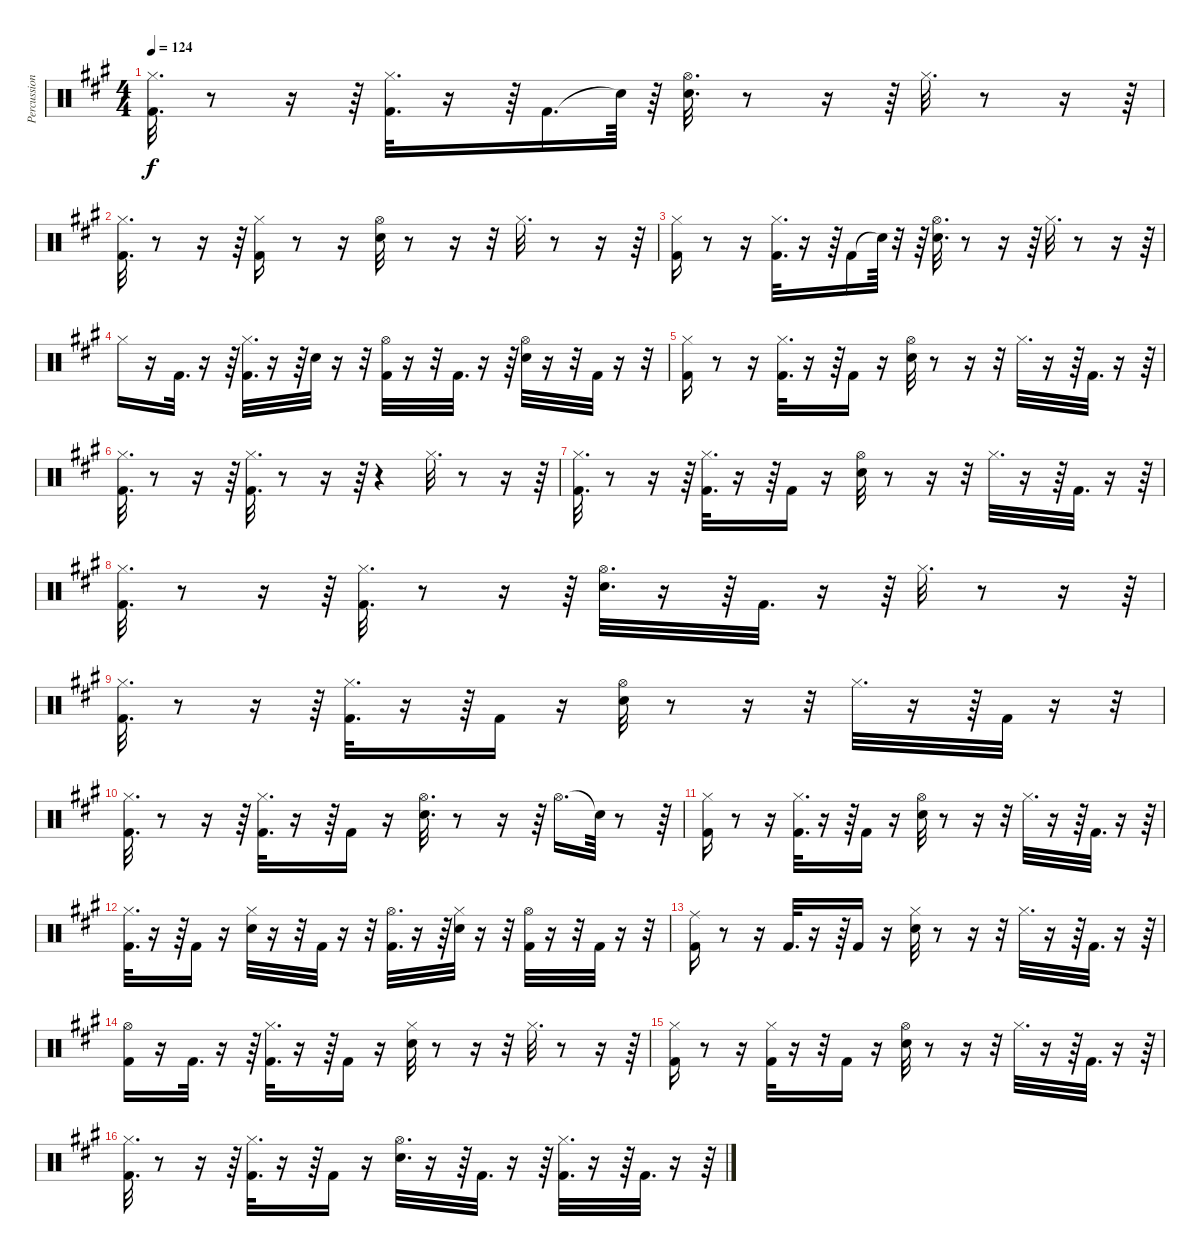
\track ("Percussion" "Percussion") {instrument percussion}
\staff {score}
\articulation defaults
\ts (4 4)
\tempo 124
\clef neutral
\ks f#minor
("Hi-Hat (closed)" "Kick (hit) 2").32{d dy f} r.8 r.16 r.64 ("Hi-Hat (closed)" "Kick (hit) 2").32{d} r.16 r.64 "Kick (hit) 2".16{d} "Snare (hit)"{t}.64 r.64 ("Hi-Hat (open)" "Electric Snare (hit)").32{d} r.8 r.16 r.64 "Hi-Hat (closed)".32{d} r.8 r.16 r.64 |
("Hi-Hat (closed)" "Kick (hit) 2").32{d} r.8 r.16 r.64 ("Hi-Hat (closed)" "Kick (hit) 2").16 r.8 r.16 ("Electric Snare (hit)" "Hi-Hat (open)").32 r.8 r.16 r.32 "Hi-Hat (closed)".32{d} r.8 r.16 r.64 |
("Kick (hit) 2" "Hi-Hat (closed)").16 r.8 r.16 ("Kick (hit) 2" "Hi-Hat (closed)").32{d} r.16 r.64 "Kick (hit) 2".16 "Snare (hit)"{t}.64 r.32 r.64 ("Electric Snare (hit)" "Hi-Hat (open)").32{d} r.8 r.16 r.64 "Hi-Hat (closed)".32{d} r.8 r.16 r.64 |
"Hi-Hat (closed)".16 r.16 "Kick (hit) 2".32{d} r.16 r.64 ("Hi-Hat (closed)" "Kick (hit) 2").32{d} r.16 r.64 "Electric Snare (hit)".32 r.16 r.32 ("Kick (hit) 2" "Hi-Hat (open)").32 r.16 r.32 "Kick (hit) 2".32{d} r.16 r.64 ("Electric Snare (hit)" "Hi-Hat (open)").32 r.16 r.32 "Kick (hit) 2".32 r.16 r.32 |
("Kick (hit) 2" "Hi-Hat (closed)").16 r.8 r.16 ("Kick (hit) 2" "Hi-Hat (closed)").32{d} r.16 r.64 "Kick (hit) 2".16 r.16 ("Electric Snare (hit)" "Hi-Hat (open)").32 r.8 r.16 r.32 "Hi-Hat (closed)".32{d} r.16 r.64 "Kick (hit) 2".32{d} r.16 r.64 |
("Hi-Hat (closed)" "Kick (hit) 2").32{d} r.8 r.16 r.64 ("Hi-Hat (closed)" "Kick (hit) 2").32{d} r.8 r.16 r.64 r.4 "Hi-Hat (closed)".32{d} r.8 r.16 r.64 |
("Kick (hit) 2" "Hi-Hat (closed)").32{d} r.8 r.16 r.64 ("Kick (hit) 2" "Hi-Hat (closed)").32{d} r.16 r.64 "Kick (hit) 2".16 r.16 ("Electric Snare (hit)" "Hi-Hat (open)").32 r.8 r.16 r.32 "Hi-Hat (closed)".32{d} r.16 r.64 "Kick (hit) 2".32{d} r.16 r.64 |
("Hi-Hat (closed)" "Kick (hit) 2").32{d} r.8 r.16 r.64 ("Kick (hit) 2" "Hi-Hat (closed)").32{d} r.8 r.16 r.64 ("Electric Snare (hit)" "Hi-Hat (open)").32{d} r.16 r.64 "Kick (hit) 2".32{d} r.16 r.64 "Hi-Hat (closed)".32{d} r.8 r.16 r.64 |
("Hi-Hat (closed)" "Kick (hit) 2").32{d} r.8 r.16 r.64 ("Hi-Hat (closed)" "Kick (hit) 2").32{d} r.16 r.64 "Kick (hit) 2".16 r.16 ("Hi-Hat (open)" "Electric Snare (hit)").32 r.8 r.16 r.32 "Hi-Hat (closed)".32{d} r.16 r.64 "Kick (hit) 2".32 r.16 r.32 |
("Kick (hit) 2" "Hi-Hat (closed)").32{d} r.8 r.16 r.64 ("Kick (hit) 2" "Hi-Hat (closed)").32{d} r.16 r.64 "Kick (hit) 2".16 r.16 ("Electric Snare (hit)" "Hi-Hat (open)").32{d} r.8 r.16 r.64 "Hi-Hat (open)".16{d} "Snare (hit)"{t}.64 r.8 r.64 |
("Hi-Hat (closed)" "Kick (hit) 2").16 r.8 r.16 ("Hi-Hat (closed)" "Kick (hit) 2").32{d} r.16 r.64 "Kick (hit) 2".16 r.16 ("Hi-Hat (open)" "Electric Snare (hit)").32 r.8 r.16 r.32 "Hi-Hat (closed)".32{d} r.16 r.64 "Kick (hit) 2".32{d} r.16 r.64 |
("Hi-Hat (closed)" "Kick (hit) 2").32{d} r.16 r.64 "Kick (hit) 2".16 r.16 ("Hi-Hat (closed)" "Electric Snare (hit)").32 r.16 r.32 "Kick (hit) 2".32 r.16 r.32 ("Hi-Hat (open)" "Kick (hit) 2").32{d} r.16 r.64 ("Hi-Hat (closed)" "Electric Snare (hit)").32 r.16 r.32 ("Hi-Hat (open)" "Kick (hit) 2").32 r.16 r.32 "Kick (hit) 2".32 r.16 r.32 |
("Kick (hit) 2" "Ride (middle)").16 r.8 r.16 "Kick (hit) 2".32{d} r.16 r.64 "Kick (hit) 2".16 r.16 ("Hi-Hat (closed)" "Electric Snare (hit)").32 r.8 r.16 r.32 "Hi-Hat (closed)".32{d} r.16 r.64 "Kick (hit) 2".32{d} r.16 r.64 |
("Hi-Hat (open)" "Kick (hit) 2").16 r.16 "Kick (hit) 2".32{d} r.16 r.64 ("Kick (hit) 2" "Hi-Hat (closed)").32{d} r.16 r.64 "Kick (hit) 2".16 r.16 ("Electric Snare (hit)" "Hi-Hat (closed)").32 r.8 r.16 r.32 "Hi-Hat (closed)".32{d} r.8 r.16 r.64 |
("Kick (hit) 2" "Hi-Hat (closed)").16 r.8 r.16 ("Hi-Hat (closed)" "Kick (hit) 2").32 r.16 r.32 "Kick (hit) 2".16 r.16 ("Hi-Hat (open)" "Electric Snare (hit)").32 r.8 r.16 r.32 "Hi-Hat (closed)".32{d} r.16 r.64 "Kick (hit) 2".32{d} r.16 r.64 |
("Hi-Hat (closed)" "Kick (hit) 2").32{d} r.8 r.16 r.64 ("Hi-Hat (closed)" "Kick (hit) 2").32{d} r.16 r.64 "Kick (hit) 2".16 r.16 ("Hi-Hat (open)" "Electric Snare (hit)").32{d} r.16 r.64 "Kick (hit) 2".32{d} r.16 r.64 ("Kick (hit) 2" "Hi-Hat (closed)").32{d} r.16 r.64 "Kick (hit) 2".32{d} r.16 r.64
